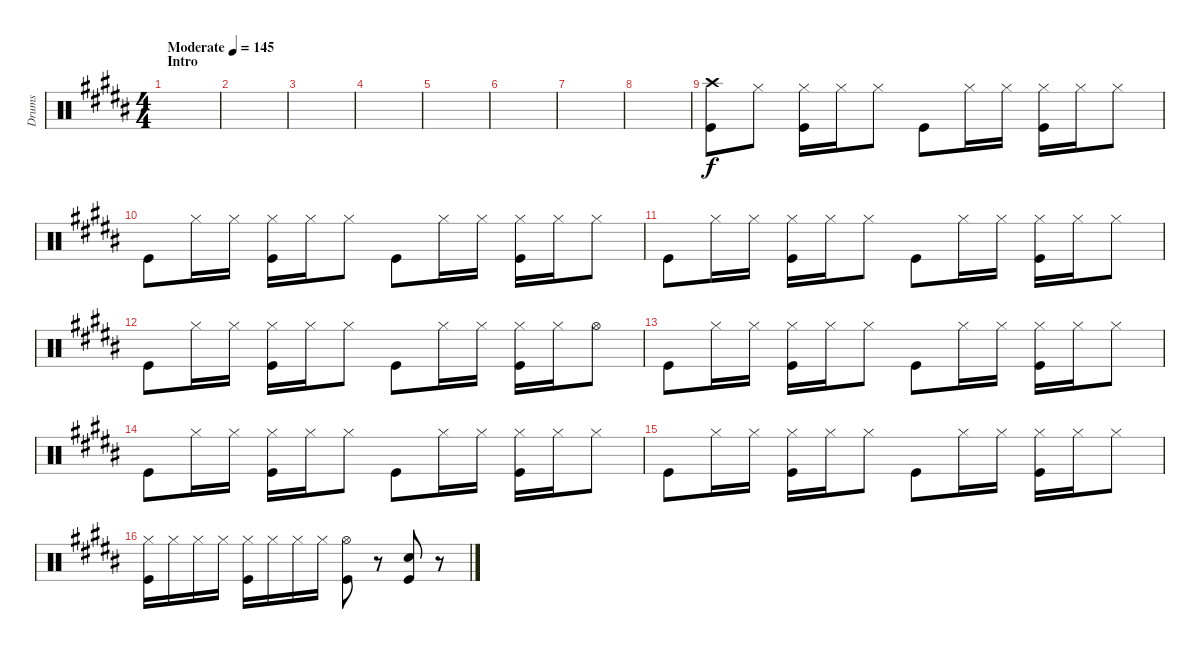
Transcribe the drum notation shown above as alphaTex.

\track ("Drums" "Drums") {instrument percussion}
\staff {score}
\articulation defaults
\ts (4 4)
\section ("" "Intro")
\tempo (145 "Moderate")
\clef neutral
\ks b
|
|
|
|
|
|
|
|
("Crash high (hit)" "Kick (hit)").8 "Hi-Hat (closed)".8 ("Hi-Hat (closed)" "Kick (hit)").16 "Hi-Hat (closed)".16 "Hi-Hat (closed)".8 "Kick (hit)".8 "Hi-Hat (closed)".16 "Hi-Hat (closed)".16 ("Hi-Hat (closed)" "Kick (hit)").16 "Hi-Hat (closed)".16 "Hi-Hat (closed)".8 |
"Kick (hit)".8 "Hi-Hat (closed)".16 "Hi-Hat (closed)".16 ("Hi-Hat (closed)" "Kick (hit)").16 "Hi-Hat (closed)".16 "Hi-Hat (closed)".8 "Kick (hit)".8 "Hi-Hat (closed)".16 "Hi-Hat (closed)".16 ("Hi-Hat (closed)" "Kick (hit)").16 "Hi-Hat (closed)".16 "Hi-Hat (closed)".8 |
"Kick (hit)".8 "Hi-Hat (closed)".16 "Hi-Hat (closed)".16 ("Hi-Hat (closed)" "Kick (hit)").16 "Hi-Hat (closed)".16 "Hi-Hat (closed)".8 "Kick (hit)".8 "Hi-Hat (closed)".16 "Hi-Hat (closed)".16 ("Hi-Hat (closed)" "Kick (hit)").16 "Hi-Hat (closed)".16 "Hi-Hat (closed)".8 |
"Kick (hit)".8 "Hi-Hat (closed)".16 "Hi-Hat (closed)".16 ("Hi-Hat (closed)" "Kick (hit)").16 "Hi-Hat (closed)".16 "Hi-Hat (closed)".8 "Kick (hit)".8 "Hi-Hat (closed)".16 "Hi-Hat (closed)".16 ("Hi-Hat (closed)" "Kick (hit)").16 "Hi-Hat (closed)".16 "Hi-Hat (open)".8 |
"Kick (hit)".8 "Hi-Hat (closed)".16 "Hi-Hat (closed)".16 ("Hi-Hat (closed)" "Kick (hit)").16 "Hi-Hat (closed)".16 "Hi-Hat (closed)".8 "Kick (hit)".8 "Hi-Hat (closed)".16 "Hi-Hat (closed)".16 ("Hi-Hat (closed)" "Kick (hit)").16 "Hi-Hat (closed)".16 "Hi-Hat (closed)".8 |
"Kick (hit)".8 "Hi-Hat (closed)".16 "Hi-Hat (closed)".16 ("Hi-Hat (closed)" "Kick (hit)").16 "Hi-Hat (closed)".16 "Hi-Hat (closed)".8 "Kick (hit)".8 "Hi-Hat (closed)".16 "Hi-Hat (closed)".16 ("Hi-Hat (closed)" "Kick (hit)").16 "Hi-Hat (closed)".16 "Hi-Hat (closed)".8 |
"Kick (hit)".8 "Hi-Hat (closed)".16 "Hi-Hat (closed)".16 ("Hi-Hat (closed)" "Kick (hit)").16 "Hi-Hat (closed)".16 "Hi-Hat (closed)".8 "Kick (hit)".8 "Hi-Hat (closed)".16 "Hi-Hat (closed)".16 ("Hi-Hat (closed)" "Kick (hit)").16 "Hi-Hat (closed)".16 "Hi-Hat (closed)".8 |
("Hi-Hat (closed)" "Kick (hit)").16 "Hi-Hat (closed)".16 "Hi-Hat (closed)".16 "Hi-Hat (closed)".16 ("Hi-Hat (closed)" "Kick (hit)").16 "Hi-Hat (closed)".16 "Hi-Hat (closed)".16 "Hi-Hat (closed)".16 ("Hi-Hat (open)" "Kick (hit)").8 r.8 ("Snare (hit) 2" "Kick (hit)").8 r.8
